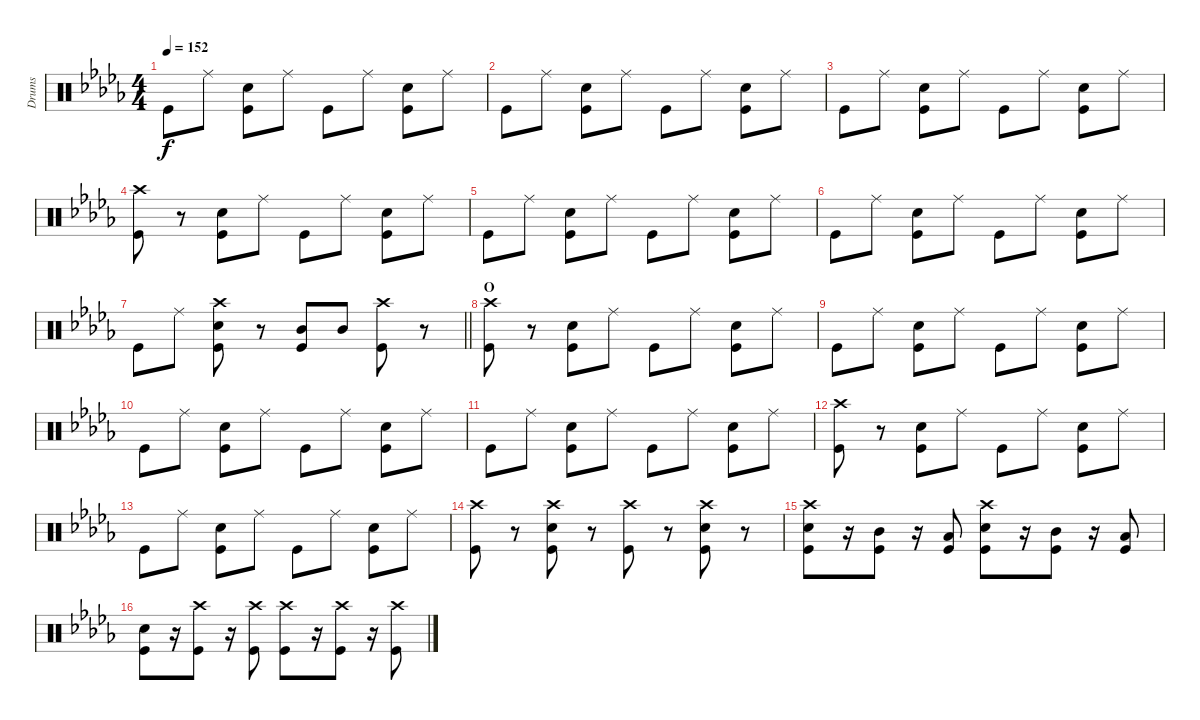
\track ("Drums" "Drums") {instrument percussion}
\staff {score}
\articulation defaults
\ts (4 4)
\tempo 152
\clef neutral
\ks db "Kick (hit)".8{dy f} "Ride (middle)".8
("Snare (hit) 2" "Kick (hit)").8 "Ride (middle)".8 "Kick (hit)".8 "Ride (middle)".8 ("Snare (hit) 2" "Kick (hit)").8 "Ride (middle)".8 |
"Kick (hit)".8 "Ride (middle)".8 ("Snare (hit) 2" "Kick (hit)").8 "Ride (middle)".8 "Kick (hit)".8 "Ride (middle)".8 ("Snare (hit) 2" "Kick (hit)").8 "Ride (middle)".8 |
"Kick (hit)".8 "Ride (middle)".8 ("Snare (hit) 2" "Kick (hit)").8 "Ride (middle)".8 "Kick (hit)".8 "Ride (middle)".8 ("Snare (hit) 2" "Kick (hit)").8 "Ride (middle)".8 |
("Crash high (hit)" "Kick (hit)").8 r.8 ("Snare (hit) 2" "Kick (hit)").8 "Ride (middle)".8 "Kick (hit)".8 "Ride (middle)".8 ("Snare (hit) 2" "Kick (hit)").8 "Ride (middle)".8 |
"Kick (hit)".8 "Ride (middle)".8 ("Snare (hit) 2" "Kick (hit)").8 "Ride (middle)".8 "Kick (hit)".8 "Ride (middle)".8 ("Snare (hit) 2" "Kick (hit)").8 "Ride (middle)".8 |
"Kick (hit)".8 "Ride (middle)".8 ("Snare (hit) 2" "Kick (hit)").8 "Ride (middle)".8 "Kick (hit)".8 "Ride (middle)".8 ("Snare (hit) 2" "Kick (hit)").8 "Ride (middle)".8 |
\barLineRight lightlight "Kick (hit)".8 "Ride (middle)".8
("Crash high (hit)" "Snare (hit) 2" "Kick (hit)").8 r.8 ("Mid Tom (hit)" "Kick (hit)").8 "Mid Tom (hit)".8 ("Crash high (hit)" "Kick (hit)").8 r.8 |
\section ("" "O")
("Crash high (hit)" "Kick (hit)").8 r.8 ("Snare (hit) 2" "Kick (hit)").8 "Ride (middle)".8 "Kick (hit)".8 "Ride (middle)".8 ("Snare (hit) 2" "Kick (hit)").8 "Ride (middle)".8 |
"Kick (hit)".8 "Ride (middle)".8 ("Snare (hit) 2" "Kick (hit)").8 "Ride (middle)".8 "Kick (hit)".8 "Ride (middle)".8 ("Snare (hit) 2" "Kick (hit)").8 "Ride (middle)".8 |
"Kick (hit)".8 "Ride (middle)".8 ("Snare (hit) 2" "Kick (hit)").8 "Ride (middle)".8 "Kick (hit)".8 "Ride (middle)".8 ("Snare (hit) 2" "Kick (hit)").8 "Ride (middle)".8 |
"Kick (hit)".8 "Ride (middle)".8 ("Snare (hit) 2" "Kick (hit)").8 "Ride (middle)".8 "Kick (hit)".8 "Ride (middle)".8 ("Snare (hit) 2" "Kick (hit)").8 "Ride (middle)".8 |
("Crash high (hit)" "Kick (hit)").8 r.8 ("Snare (hit) 2" "Kick (hit)").8 "Ride (middle)".8 "Kick (hit)".8 "Ride (middle)".8 ("Snare (hit) 2" "Kick (hit)").8 "Ride (middle)".8 |
"Kick (hit)".8 "Ride (middle)".8 ("Snare (hit) 2" "Kick (hit)").8 "Ride (middle)".8 "Kick (hit)".8 "Ride (middle)".8 ("Snare (hit) 2" "Kick (hit)").8 "Ride (middle)".8 |
("Crash high (hit)" "Kick (hit)").8 r.8 ("Crash high (hit)" "Snare (hit) 2" "Kick (hit)").8 r.8 ("Crash high (hit)" "Kick (hit)").8 r.8 ("Crash high (hit)" "Snare (hit) 2" "Kick (hit)").8 r.8 |
("Crash high (hit)" "Snare (hit) 2" "Kick (hit)").8 r.16 ("Mid Tom (hit)" "Kick (hit)").8 r.16 ("Low Tom (hit)" "Kick (hit)").8 ("Crash high (hit)" "Snare (hit) 2" "Kick (hit)").8 r.16 ("Mid Tom (hit)" "Kick (hit)").8 r.16 ("Low Tom (hit)" "Kick (hit)").8 |
("Snare (hit) 2" "Kick (hit)").8 r.16 ("Crash high (hit)" "Kick (hit)").8 r.16 ("Crash high (hit)" "Kick (hit)").8 ("Crash high (hit)" "Kick (hit)").8 r.16 ("Crash high (hit)" "Kick (hit)").8 r.16 ("Crash high (hit)" "Kick (hit)").8
